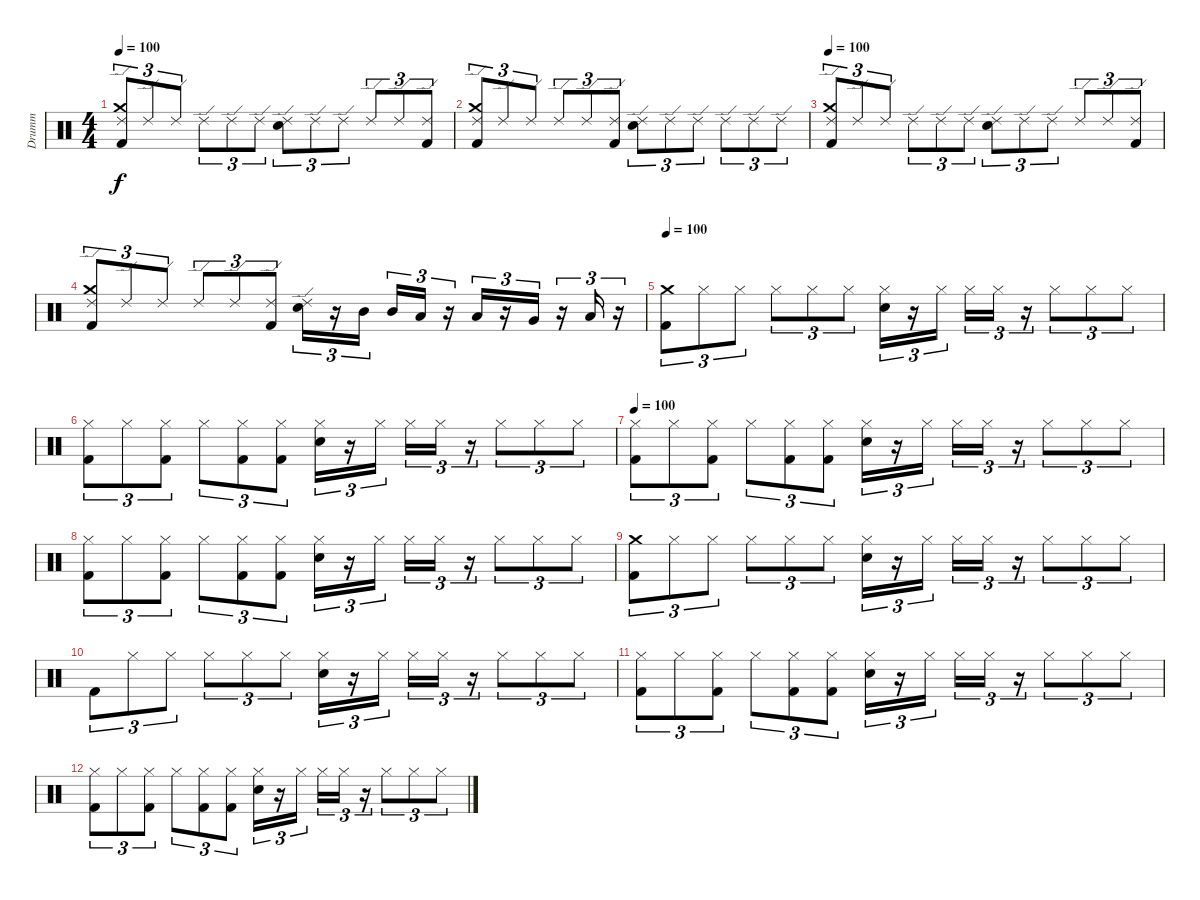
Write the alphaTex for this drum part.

\track ("Drumm" "Drumm") {instrument percussion}
\staff {score}
\articulation defaults
\ts (4 4)
\tempo 100
\clef neutral
\ks c
("Ride (edge) 2" "Crash medium (hit)" "Kick (hit) 2").8{tu (3 2) dy f} "Ride (edge) 2".8{tu (3 2)} "Ride (edge) 2".8{tu (3 2)} "Ride (edge) 2".8{tu (3 2)} "Ride (edge) 2".8{tu (3 2)} "Ride (edge) 2".8{tu (3 2)} ("Ride (edge) 2" "Electric Snare (hit)").8{tu (3 2)} "Ride (edge) 2".8{tu (3 2)} "Ride (edge) 2".8{tu (3 2)} "Ride (edge) 2".8{tu (3 2)} "Ride (edge) 2".8{tu (3 2)} ("Ride (edge) 2" "Kick (hit) 2").8{tu (3 2)} |
("Ride (edge) 2" "Crash medium (hit)" "Kick (hit) 2").8{tu (3 2)} "Ride (edge) 2".8{tu (3 2)} "Ride (edge) 2".8{tu (3 2)} "Ride (edge) 2".8{tu (3 2)} "Ride (edge) 2".8{tu (3 2)} ("Ride (edge) 2" "Kick (hit) 2").8{tu (3 2)} ("Ride (edge) 2" "Electric Snare (hit)").8{tu (3 2)} "Ride (edge) 2".8{tu (3 2)} "Ride (edge) 2".8{tu (3 2)} "Ride (edge) 2".8{tu (3 2)} "Ride (edge) 2".8{tu (3 2)} "Ride (edge) 2".8{tu (3 2)} |
\tempo 100
("Ride (edge) 2" "Crash medium (hit)" "Kick (hit) 2").8{tu (3 2)} "Ride (edge) 2".8{tu (3 2)} "Ride (edge) 2".8{tu (3 2)} "Ride (edge) 2".8{tu (3 2)} "Ride (edge) 2".8{tu (3 2)} "Ride (edge) 2".8{tu (3 2)} ("Ride (edge) 2" "Electric Snare (hit)").8{tu (3 2)} "Ride (edge) 2".8{tu (3 2)} "Ride (edge) 2".8{tu (3 2)} "Ride (edge) 2".8{tu (3 2)} "Ride (edge) 2".8{tu (3 2)} ("Ride (edge) 2" "Kick (hit) 2").8{tu (3 2)} |
("Ride (edge) 2" "Crash medium (hit)" "Kick (hit) 2").8{tu (3 2)} "Ride (edge) 2".8{tu (3 2)} "Ride (edge) 2".8{tu (3 2)} "Ride (edge) 2".8{tu (3 2)} "Ride (edge) 2".8{tu (3 2)} ("Ride (edge) 2" "Kick (hit) 2").8{tu (3 2)} ("Ride (edge) 2" "Electric Snare (hit)").16{tu (3 2)} r.16{tu (3 2)} "Mid Tom (hit)".16{tu (3 2)} "Mid Tom (hit)".16{tu (3 2)} "Low Tom (hit)".16{tu (3 2)} r.16{tu (3 2)} "Low Tom (hit)".16{tu (3 2)} r.16{tu (3 2)} "Very Low Tom (hit)".16{tu (3 2)} r.16{tu (3 2)} "Low Floor Tom (hit)".16{tu (3 2)} r.16{tu (3 2)} |
\tempo 100
("Crash medium (hit)" "Kick (hit) 2").8{tu (3 2)} "Hi-Hat (closed)".8{tu (3 2)} "Hi-Hat (closed)".8{tu (3 2)} "Hi-Hat (closed)".8{tu (3 2)} "Hi-Hat (closed)".8{tu (3 2)} "Hi-Hat (closed)".8{tu (3 2)} ("Hi-Hat (closed)" "Electric Snare (hit)").16{tu (3 2)} r.16{tu (3 2)} "Hi-Hat (closed)".16{tu (3 2)} "Hi-Hat (closed)".16{tu (3 2)} "Hi-Hat (closed)".16{tu (3 2)} r.16{tu (3 2)} "Hi-Hat (closed)".8{tu (3 2)} "Hi-Hat (closed)".8{tu (3 2)} "Hi-Hat (closed)".8{tu (3 2)} |
("Hi-Hat (closed)" "Kick (hit) 2").8{tu (3 2)} "Hi-Hat (closed)".8{tu (3 2)} ("Hi-Hat (closed)" "Kick (hit) 2").8{tu (3 2)} "Hi-Hat (closed)".8{tu (3 2)} ("Hi-Hat (closed)" "Kick (hit) 2").8{tu (3 2)} ("Hi-Hat (closed)" "Kick (hit) 2").8{tu (3 2)} ("Hi-Hat (closed)" "Electric Snare (hit)").16{tu (3 2)} r.16{tu (3 2)} "Hi-Hat (closed)".16{tu (3 2)} "Hi-Hat (closed)".16{tu (3 2)} "Hi-Hat (closed)".16{tu (3 2)} r.16{tu (3 2)} "Hi-Hat (closed)".8{tu (3 2)} "Hi-Hat (closed)".8{tu (3 2)} "Hi-Hat (closed)".8{tu (3 2)} |
\tempo 100
("Hi-Hat (closed)" "Kick (hit) 2").8{tu (3 2)} "Hi-Hat (closed)".8{tu (3 2)} ("Hi-Hat (closed)" "Kick (hit) 2").8{tu (3 2)} "Hi-Hat (closed)".8{tu (3 2)} ("Hi-Hat (closed)" "Kick (hit) 2").8{tu (3 2)} ("Hi-Hat (closed)" "Kick (hit) 2").8{tu (3 2)} ("Hi-Hat (closed)" "Electric Snare (hit)").16{tu (3 2)} r.16{tu (3 2)} "Hi-Hat (closed)".16{tu (3 2)} "Hi-Hat (closed)".16{tu (3 2)} "Hi-Hat (closed)".16{tu (3 2)} r.16{tu (3 2)} "Hi-Hat (closed)".8{tu (3 2)} "Hi-Hat (closed)".8{tu (3 2)} "Hi-Hat (closed)".8{tu (3 2)} |
("Hi-Hat (closed)" "Kick (hit) 2").8{tu (3 2)} "Hi-Hat (closed)".8{tu (3 2)} ("Hi-Hat (closed)" "Kick (hit) 2").8{tu (3 2)} "Hi-Hat (closed)".8{tu (3 2)} ("Hi-Hat (closed)" "Kick (hit) 2").8{tu (3 2)} ("Hi-Hat (closed)" "Kick (hit) 2").8{tu (3 2)} ("Hi-Hat (closed)" "Electric Snare (hit)").16{tu (3 2)} r.16{tu (3 2)} "Hi-Hat (closed)".16{tu (3 2)} "Hi-Hat (closed)".16{tu (3 2)} "Hi-Hat (closed)".16{tu (3 2)} r.16{tu (3 2)} "Hi-Hat (closed)".8{tu (3 2)} "Hi-Hat (closed)".8{tu (3 2)} "Hi-Hat (closed)".8{tu (3 2)} |
("Crash medium (hit)" "Kick (hit) 2").8{tu (3 2) volume 0} "Hi-Hat (closed)".8{tu (3 2)} "Hi-Hat (closed)".8{tu (3 2)} "Hi-Hat (closed)".8{tu (3 2)} "Hi-Hat (closed)".8{tu (3 2)} "Hi-Hat (closed)".8{tu (3 2)} ("Hi-Hat (closed)" "Electric Snare (hit)").16{tu (3 2)} r.16{tu (3 2)} "Hi-Hat (closed)".16{tu (3 2)} "Hi-Hat (closed)".16{tu (3 2)} "Hi-Hat (closed)".16{tu (3 2)} r.16{tu (3 2)} "Hi-Hat (closed)".8{tu (3 2)} "Hi-Hat (closed)".8{tu (3 2)} "Hi-Hat (closed)".8{tu (3 2)} |
"Kick (hit) 2".8{tu (3 2)} "Hi-Hat (closed)".8{tu (3 2)} "Hi-Hat (closed)".8{tu (3 2)} "Hi-Hat (closed)".8{tu (3 2)} "Hi-Hat (closed)".8{tu (3 2)} "Hi-Hat (closed)".8{tu (3 2)} ("Hi-Hat (closed)" "Electric Snare (hit)").16{tu (3 2)} r.16{tu (3 2)} "Hi-Hat (closed)".16{tu (3 2)} "Hi-Hat (closed)".16{tu (3 2)} "Hi-Hat (closed)".16{tu (3 2)} r.16{tu (3 2)} "Hi-Hat (closed)".8{tu (3 2)} "Hi-Hat (closed)".8{tu (3 2)} "Hi-Hat (closed)".8{tu (3 2)} |
("Hi-Hat (closed)" "Kick (hit) 2").8{tu (3 2)} "Hi-Hat (closed)".8{tu (3 2)} ("Hi-Hat (closed)" "Kick (hit) 2").8{tu (3 2)} "Hi-Hat (closed)".8{tu (3 2)} ("Hi-Hat (closed)" "Kick (hit) 2").8{tu (3 2)} ("Hi-Hat (closed)" "Kick (hit) 2").8{tu (3 2)} ("Hi-Hat (closed)" "Electric Snare (hit)").16{tu (3 2)} r.16{tu (3 2)} "Hi-Hat (closed)".16{tu (3 2)} "Hi-Hat (closed)".16{tu (3 2)} "Hi-Hat (closed)".16{tu (3 2)} r.16{tu (3 2)} "Hi-Hat (closed)".8{tu (3 2)} "Hi-Hat (closed)".8{tu (3 2)} "Hi-Hat (closed)".8{tu (3 2)} |
("Hi-Hat (closed)" "Kick (hit) 2").8{tu (3 2)} "Hi-Hat (closed)".8{tu (3 2)} ("Hi-Hat (closed)" "Kick (hit) 2").8{tu (3 2)} "Hi-Hat (closed)".8{tu (3 2)} ("Hi-Hat (closed)" "Kick (hit) 2").8{tu (3 2)} ("Hi-Hat (closed)" "Kick (hit) 2").8{tu (3 2)} ("Hi-Hat (closed)" "Electric Snare (hit)").16{tu (3 2)} r.16{tu (3 2)} "Hi-Hat (closed)".16{tu (3 2)} "Hi-Hat (closed)".16{tu (3 2)} "Hi-Hat (closed)".16{tu (3 2)} r.16{tu (3 2)} "Hi-Hat (closed)".8{tu (3 2)} "Hi-Hat (closed)".8{tu (3 2)} "Hi-Hat (closed)".8{tu (3 2)}
